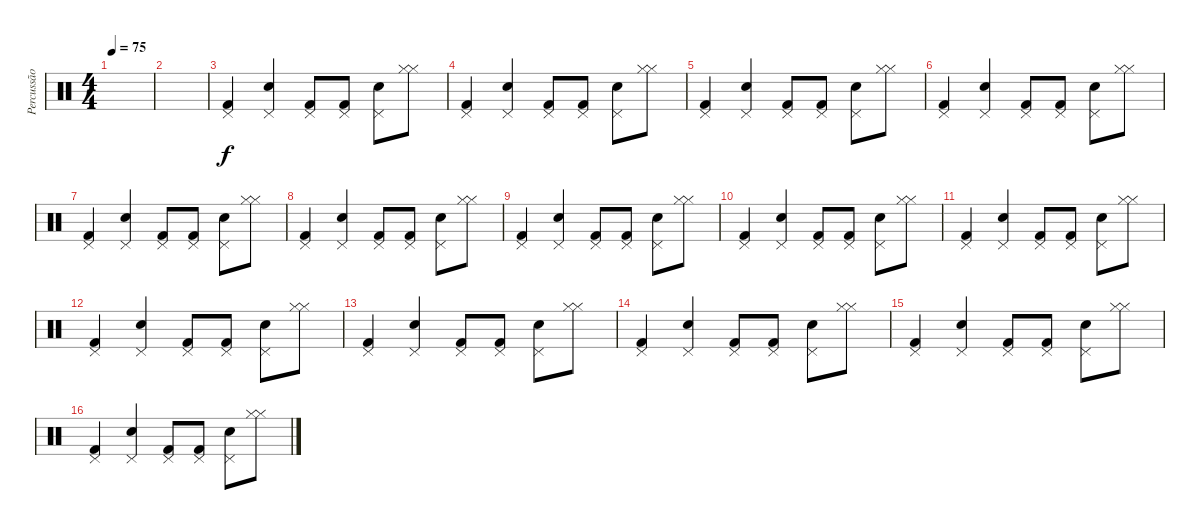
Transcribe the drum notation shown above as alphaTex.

\track ("Percussão" "Percussão") {instrument percussion}
\staff {score}
\articulation defaults
\ts (4 4)
\tempo 75
\clef neutral
\ks c
|
|
("Pedal Hi-Hat (hit)" "Kick (hit) 2").4 ("Pedal Hi-Hat (hit)" "Electric Snare (hit)").4 ("Pedal Hi-Hat (hit)" "Kick (hit) 2").8 ("Pedal Hi-Hat (hit)" "Kick (hit) 2").8 ("Pedal Hi-Hat (hit)" "Electric Snare (hit)").8 ("Hi-Hat (closed)" "Hi-Hat (closed)").8 |
("Pedal Hi-Hat (hit)" "Kick (hit) 2").4 ("Pedal Hi-Hat (hit)" "Electric Snare (hit)").4 ("Pedal Hi-Hat (hit)" "Kick (hit) 2").8 ("Pedal Hi-Hat (hit)" "Kick (hit) 2").8 ("Pedal Hi-Hat (hit)" "Electric Snare (hit)").8 ("Hi-Hat (closed)" "Hi-Hat (closed)").8 |
("Pedal Hi-Hat (hit)" "Kick (hit) 2").4 ("Pedal Hi-Hat (hit)" "Electric Snare (hit)").4 ("Pedal Hi-Hat (hit)" "Kick (hit) 2").8 ("Pedal Hi-Hat (hit)" "Kick (hit) 2").8 ("Pedal Hi-Hat (hit)" "Electric Snare (hit)").8 ("Hi-Hat (closed)" "Hi-Hat (closed)").8 |
("Pedal Hi-Hat (hit)" "Kick (hit) 2").4 ("Pedal Hi-Hat (hit)" "Electric Snare (hit)").4 ("Pedal Hi-Hat (hit)" "Kick (hit) 2").8 ("Pedal Hi-Hat (hit)" "Kick (hit) 2").8 ("Pedal Hi-Hat (hit)" "Electric Snare (hit)").8 ("Hi-Hat (closed)" "Hi-Hat (closed)").8 |
("Pedal Hi-Hat (hit)" "Kick (hit) 2").4 ("Pedal Hi-Hat (hit)" "Electric Snare (hit)").4 ("Pedal Hi-Hat (hit)" "Kick (hit) 2").8 ("Pedal Hi-Hat (hit)" "Kick (hit) 2").8 ("Pedal Hi-Hat (hit)" "Electric Snare (hit)").8 ("Hi-Hat (closed)" "Hi-Hat (closed)").8 |
("Pedal Hi-Hat (hit)" "Kick (hit) 2").4 ("Pedal Hi-Hat (hit)" "Electric Snare (hit)").4 ("Pedal Hi-Hat (hit)" "Kick (hit) 2").8 ("Pedal Hi-Hat (hit)" "Kick (hit) 2").8 ("Pedal Hi-Hat (hit)" "Electric Snare (hit)").8 ("Hi-Hat (closed)" "Hi-Hat (closed)").8 |
("Pedal Hi-Hat (hit)" "Kick (hit) 2").4 ("Pedal Hi-Hat (hit)" "Electric Snare (hit)").4 ("Pedal Hi-Hat (hit)" "Kick (hit) 2").8 ("Pedal Hi-Hat (hit)" "Kick (hit) 2").8 ("Pedal Hi-Hat (hit)" "Electric Snare (hit)").8 ("Hi-Hat (closed)" "Hi-Hat (closed)").8 |
("Pedal Hi-Hat (hit)" "Kick (hit) 2").4 ("Pedal Hi-Hat (hit)" "Electric Snare (hit)").4 ("Pedal Hi-Hat (hit)" "Kick (hit) 2").8 ("Pedal Hi-Hat (hit)" "Kick (hit) 2").8 ("Pedal Hi-Hat (hit)" "Electric Snare (hit)").8 ("Hi-Hat (closed)" "Hi-Hat (closed)").8 |
("Pedal Hi-Hat (hit)" "Kick (hit) 2").4 ("Pedal Hi-Hat (hit)" "Electric Snare (hit)").4 ("Pedal Hi-Hat (hit)" "Kick (hit) 2").8 ("Pedal Hi-Hat (hit)" "Kick (hit) 2").8 ("Pedal Hi-Hat (hit)" "Electric Snare (hit)").8 ("Hi-Hat (closed)" "Hi-Hat (closed)").8 |
("Pedal Hi-Hat (hit)" "Kick (hit) 2").4 ("Pedal Hi-Hat (hit)" "Electric Snare (hit)").4 ("Pedal Hi-Hat (hit)" "Kick (hit) 2").8 ("Pedal Hi-Hat (hit)" "Kick (hit) 2").8 ("Pedal Hi-Hat (hit)" "Electric Snare (hit)").8 ("Hi-Hat (closed)" "Hi-Hat (closed)").8 |
("Pedal Hi-Hat (hit)" "Kick (hit) 2").4 ("Pedal Hi-Hat (hit)" "Electric Snare (hit)").4 ("Pedal Hi-Hat (hit)" "Kick (hit) 2").8 ("Pedal Hi-Hat (hit)" "Kick (hit) 2").8 ("Pedal Hi-Hat (hit)" "Electric Snare (hit)").8 ("Hi-Hat (closed)" "Hi-Hat (closed)").8 |
("Pedal Hi-Hat (hit)" "Kick (hit) 2").4 ("Pedal Hi-Hat (hit)" "Electric Snare (hit)").4 ("Pedal Hi-Hat (hit)" "Kick (hit) 2").8 ("Pedal Hi-Hat (hit)" "Kick (hit) 2").8 ("Pedal Hi-Hat (hit)" "Electric Snare (hit)").8 ("Hi-Hat (closed)" "Hi-Hat (closed)").8 |
("Pedal Hi-Hat (hit)" "Kick (hit) 2").4 ("Pedal Hi-Hat (hit)" "Electric Snare (hit)").4 ("Pedal Hi-Hat (hit)" "Kick (hit) 2").8 ("Pedal Hi-Hat (hit)" "Kick (hit) 2").8 ("Pedal Hi-Hat (hit)" "Electric Snare (hit)").8 ("Hi-Hat (closed)" "Hi-Hat (closed)").8 |
("Pedal Hi-Hat (hit)" "Kick (hit) 2").4 ("Pedal Hi-Hat (hit)" "Electric Snare (hit)").4 ("Pedal Hi-Hat (hit)" "Kick (hit) 2").8 ("Pedal Hi-Hat (hit)" "Kick (hit) 2").8 ("Pedal Hi-Hat (hit)" "Electric Snare (hit)").8 ("Hi-Hat (closed)" "Hi-Hat (closed)").8
